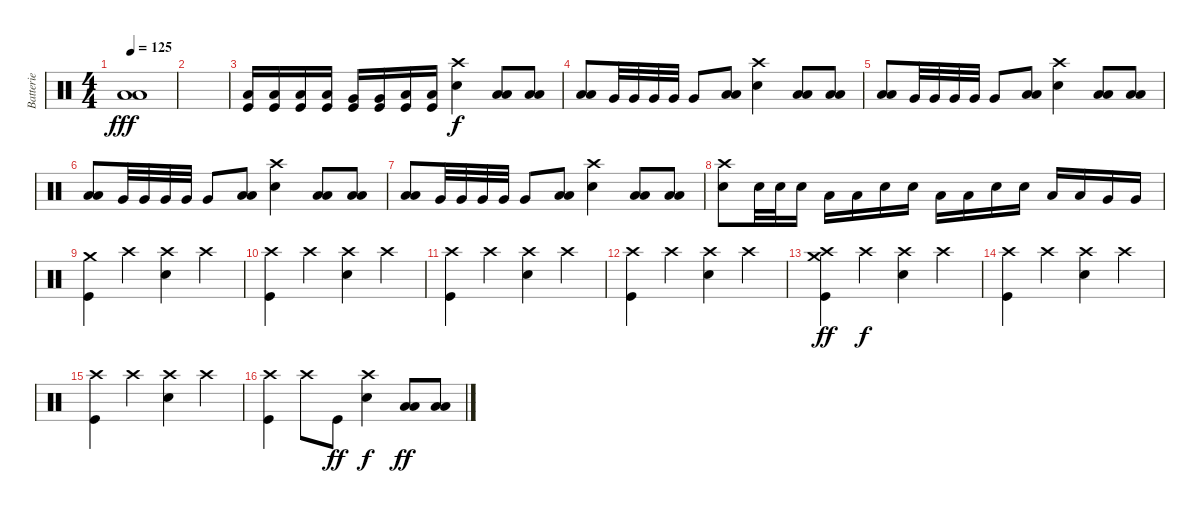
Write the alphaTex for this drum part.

\track ("Batterie" "Batterie") {instrument percussion}
\staff {score}
\articulation defaults
\ts (4 4)
\tempo 125
\clef neutral
\ks c
("Low Tom (hit)" "Low Floor Tom (hit)").1{bu 120 dy fff} |
|
("Low Tom (hit)" "Kick (hit)").16 ("Low Tom (hit)" "Kick (hit)").16 ("Low Tom (hit)" "Kick (hit)").16 ("Low Tom (hit)" "Kick (hit)").16 ("Very Low Tom (hit)" "Kick (hit)").16 ("Very Low Tom (hit)" "Kick (hit)").16 ("Low Floor Tom (hit)" "Kick (hit)").16 ("Low Floor Tom (hit)" "Kick (hit)").16 ("Crash high (hit)" "Electric Snare (hit)").4{dy f} ("Low Tom (hit)" "Low Floor Tom (hit)").8 ("Low Tom (hit)" "Low Floor Tom (hit)").8 |
("Low Tom (hit)" "Low Floor Tom (hit)").8 "Very Low Tom (hit)".32 "Very Low Tom (hit)".32 "Very Low Tom (hit)".32 "Very Low Tom (hit)".32 "Very Low Tom (hit)".8 ("Low Tom (hit)" "Low Floor Tom (hit)").8 ("Crash high (hit)" "Electric Snare (hit)").4 ("Low Tom (hit)" "Low Floor Tom (hit)").8 ("Low Tom (hit)" "Low Floor Tom (hit)").8 |
("Low Tom (hit)" "Low Floor Tom (hit)").8 "Very Low Tom (hit)".32 "Very Low Tom (hit)".32 "Very Low Tom (hit)".32 "Very Low Tom (hit)".32 "Very Low Tom (hit)".8 ("Low Tom (hit)" "Low Floor Tom (hit)").8 ("Crash high (hit)" "Electric Snare (hit)").4 ("Low Tom (hit)" "Low Floor Tom (hit)").8 ("Low Tom (hit)" "Low Floor Tom (hit)").8 |
("Low Tom (hit)" "Low Floor Tom (hit)").8 "Very Low Tom (hit)".32 "Very Low Tom (hit)".32 "Very Low Tom (hit)".32 "Very Low Tom (hit)".32 "Very Low Tom (hit)".8 ("Low Tom (hit)" "Low Floor Tom (hit)").8 ("Crash high (hit)" "Electric Snare (hit)").4 ("Low Tom (hit)" "Low Floor Tom (hit)").8 ("Low Tom (hit)" "Low Floor Tom (hit)").8 |
("Low Tom (hit)" "Low Floor Tom (hit)").8 "Very Low Tom (hit)".32 "Very Low Tom (hit)".32 "Very Low Tom (hit)".32 "Very Low Tom (hit)".32 "Very Low Tom (hit)".8 ("Low Tom (hit)" "Low Floor Tom (hit)").8 ("Crash high (hit)" "Electric Snare (hit)").4 ("Low Tom (hit)" "Low Floor Tom (hit)").8 ("Low Tom (hit)" "Low Floor Tom (hit)").8 |
("Crash high (hit)" "Electric Snare (hit)").8 "Electric Snare (hit)".32 "Electric Snare (hit)".32 "Electric Snare (hit)".16 "Low Tom (hit)".16 "Low Tom (hit)".16 "Electric Snare (hit)".16 "Electric Snare (hit)".16 "Low Tom (hit)".16 "Low Tom (hit)".16 "Electric Snare (hit)".16 "Electric Snare (hit)".16 "Low Tom (hit)".16 "Low Tom (hit)".16 "Very Low Tom (hit)".16 "Very Low Tom (hit)".16 |
("Crash medium (hit)" "Kick (hit)").4 "Crash high (hit)".4 ("Crash high (hit)" "Electric Snare (hit)").4 "Crash high (hit)".4 |
("Crash high (hit)" "Kick (hit)").4 "Crash high (hit)".4 ("Crash high (hit)" "Electric Snare (hit)").4 "Crash high (hit)".4 |
("Crash high (hit)" "Kick (hit)").4 "Crash high (hit)".4 ("Crash high (hit)" "Electric Snare (hit)").4 "Crash high (hit)".4 |
("Crash high (hit)" "Kick (hit)").4 "Crash high (hit)".4 ("Crash high (hit)" "Electric Snare (hit)").4 "Crash high (hit)".4 |
("Crash medium (hit)" "Crash high (hit)" "Kick (hit)").4{dy ff} "Crash high (hit)".4{dy f} ("Crash high (hit)" "Electric Snare (hit)").4 "Crash high (hit)".4 |
("Crash high (hit)" "Kick (hit)").4 "Crash high (hit)".4 ("Crash high (hit)" "Electric Snare (hit)").4 "Crash high (hit)".4 |
("Crash high (hit)" "Kick (hit)").4 "Crash high (hit)".4 ("Crash high (hit)" "Electric Snare (hit)").4 "Crash high (hit)".4 |
("Crash high (hit)" "Kick (hit)").4 "Crash high (hit)".8 "Kick (hit)".8{dy ff} ("Crash high (hit)" "Electric Snare (hit)").4{dy f} ("Low Tom (hit)" "Low Floor Tom (hit)").8{dy ff} ("Low Tom (hit)" "Low Floor Tom (hit)").8
